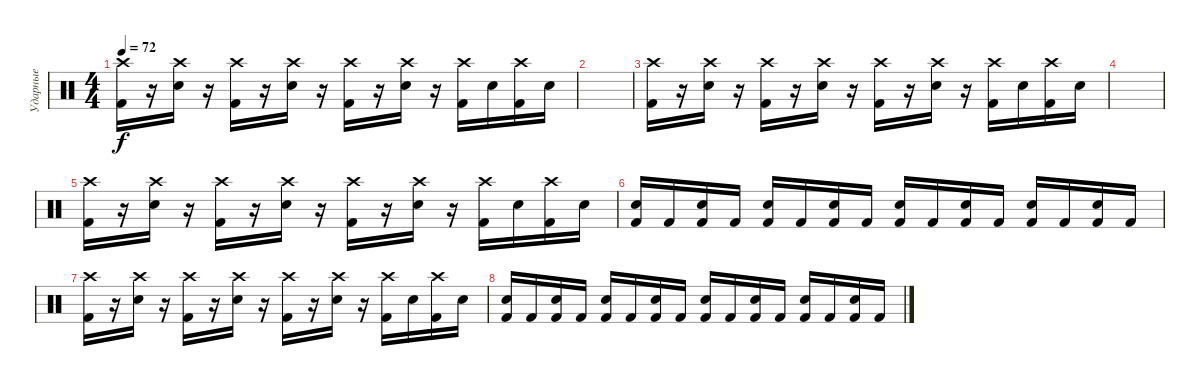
\track ("Ударные" "Ударные") {instrument percussion}
\staff {score}
\articulation defaults
\ts (4 4)
\tempo 72
\clef neutral
\ks c
("Crash high (hit)" "Kick (hit) 2").16{dy f} r.16 ("Crash high (hit)" "Snare (hit) 2").16 r.16 ("Crash high (hit)" "Kick (hit) 2").16 r.16 ("Crash high (hit)" "Snare (hit) 2").16 r.16 ("Crash high (hit)" "Kick (hit) 2").16 r.16 ("Crash high (hit)" "Snare (hit) 2").16 r.16 ("Crash high (hit)" "Kick (hit) 2").16 "Snare (hit) 2".16 ("Crash high (hit)" "Kick (hit) 2").16 "Snare (hit) 2".16 |
|
("Crash high (hit)" "Kick (hit) 2").16 r.16 ("Crash high (hit)" "Snare (hit) 2").16 r.16 ("Crash high (hit)" "Kick (hit) 2").16 r.16 ("Crash high (hit)" "Snare (hit) 2").16 r.16 ("Crash high (hit)" "Kick (hit) 2").16 r.16 ("Crash high (hit)" "Snare (hit) 2").16 r.16 ("Crash high (hit)" "Kick (hit) 2").16 "Snare (hit) 2".16 ("Crash high (hit)" "Kick (hit) 2").16 "Snare (hit) 2".16 |
|
("Crash high (hit)" "Kick (hit) 2").16 r.16 ("Crash high (hit)" "Snare (hit) 2").16 r.16 ("Crash high (hit)" "Kick (hit) 2").16 r.16 ("Crash high (hit)" "Snare (hit) 2").16 r.16 ("Crash high (hit)" "Kick (hit) 2").16 r.16 ("Crash high (hit)" "Snare (hit) 2").16 r.16 ("Crash high (hit)" "Kick (hit) 2").16 "Snare (hit) 2".16 ("Crash high (hit)" "Kick (hit) 2").16 "Snare (hit) 2".16 |
("Snare (hit) 2" "Kick (hit) 2").16 "Kick (hit) 2".16 ("Snare (hit) 2" "Kick (hit) 2").16 "Kick (hit) 2".16 ("Snare (hit) 2" "Kick (hit) 2").16 "Kick (hit) 2".16 ("Snare (hit) 2" "Kick (hit) 2").16 "Kick (hit) 2".16 ("Snare (hit) 2" "Kick (hit) 2").16 "Kick (hit) 2".16 ("Snare (hit) 2" "Kick (hit) 2").16 "Kick (hit) 2".16 ("Snare (hit) 2" "Kick (hit) 2").16 "Kick (hit) 2".16 ("Snare (hit) 2" "Kick (hit) 2").16 "Kick (hit) 2".16 |
("Crash high (hit)" "Kick (hit) 2").16 r.16 ("Crash high (hit)" "Snare (hit) 2").16 r.16 ("Crash high (hit)" "Kick (hit) 2").16 r.16 ("Crash high (hit)" "Snare (hit) 2").16 r.16 ("Crash high (hit)" "Kick (hit) 2").16 r.16 ("Crash high (hit)" "Snare (hit) 2").16 r.16 ("Crash high (hit)" "Kick (hit) 2").16 "Snare (hit) 2".16 ("Crash high (hit)" "Kick (hit) 2").16 "Snare (hit) 2".16 |
("Snare (hit) 2" "Kick (hit) 2").16 "Kick (hit) 2".16 ("Snare (hit) 2" "Kick (hit) 2").16 "Kick (hit) 2".16 ("Snare (hit) 2" "Kick (hit) 2").16 "Kick (hit) 2".16 ("Snare (hit) 2" "Kick (hit) 2").16 "Kick (hit) 2".16 ("Snare (hit) 2" "Kick (hit) 2").16 "Kick (hit) 2".16 ("Snare (hit) 2" "Kick (hit) 2").16 "Kick (hit) 2".16 ("Snare (hit) 2" "Kick (hit) 2").16 "Kick (hit) 2".16 ("Snare (hit) 2" "Kick (hit) 2").16 "Kick (hit) 2".16
